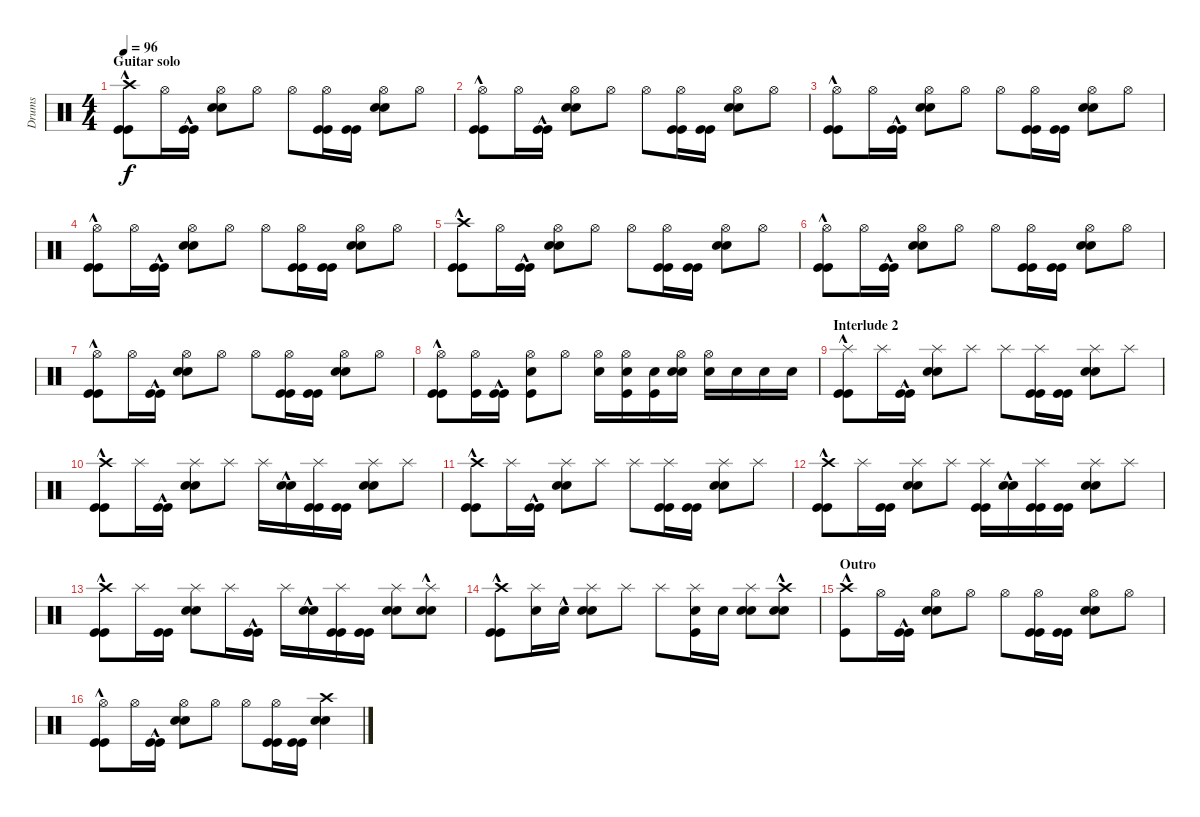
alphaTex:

\track ("Drums" "Drums") {instrument percussion}
\staff {score}
\articulation defaults
\ts (4 4)
\section ("" "Guitar solo")
\tempo 96
\clef neutral
\ks c
("Kick (hit)"{hac} "Kick (hit)"{hac} "Crash high (hit)").8{dy f} "Hi-Hat (open)".16 ("Kick (hit)"{hac} "Kick (hit)"{hac}).16 ("Snare (hit) 2" "Snare (hit) 2" "Hi-Hat (open)").8 "Hi-Hat (open)".8 "Hi-Hat (open)".8 ("Kick (hit)" "Kick (hit)" "Hi-Hat (open)").16 ("Kick (hit)" "Kick (hit)").16 ("Snare (hit) 2" "Snare (hit) 2" "Hi-Hat (open)").8 "Hi-Hat (open)".8 |
("Kick (hit)"{hac} "Kick (hit)"{hac} "Hi-Hat (open)").8 "Hi-Hat (open)".16 ("Kick (hit)"{hac} "Kick (hit)"{hac}).16 ("Snare (hit) 2" "Snare (hit) 2" "Hi-Hat (open)").8 "Hi-Hat (open)".8 "Hi-Hat (open)".8 ("Kick (hit)" "Kick (hit)" "Hi-Hat (open)").16 ("Kick (hit)" "Kick (hit)").16 ("Snare (hit) 2" "Snare (hit) 2" "Hi-Hat (open)").8 "Hi-Hat (open)".8 |
("Kick (hit)"{hac} "Kick (hit)"{hac} "Hi-Hat (open)").8 "Hi-Hat (open)".16 ("Kick (hit)"{hac} "Kick (hit)"{hac}).16 ("Snare (hit) 2" "Snare (hit) 2" "Hi-Hat (open)").8 "Hi-Hat (open)".8 "Hi-Hat (open)".8 ("Kick (hit)" "Kick (hit)" "Hi-Hat (open)").16 ("Kick (hit)" "Kick (hit)").16 ("Snare (hit) 2" "Snare (hit) 2" "Hi-Hat (open)").8 "Hi-Hat (open)".8 |
("Kick (hit)"{hac} "Kick (hit)"{hac} "Hi-Hat (open)").8 "Hi-Hat (open)".16 ("Kick (hit)"{hac} "Kick (hit)"{hac}).16 ("Snare (hit) 2" "Snare (hit) 2" "Hi-Hat (open)").8 "Hi-Hat (open)".8 "Hi-Hat (open)".8 ("Kick (hit)" "Kick (hit)" "Hi-Hat (open)").16 ("Kick (hit)" "Kick (hit)").16 ("Snare (hit) 2" "Snare (hit) 2" "Hi-Hat (open)").8 "Hi-Hat (open)".8 |
("Kick (hit)"{hac} "Kick (hit)"{hac} "Crash high (hit)").8 "Hi-Hat (open)".16 ("Kick (hit)"{hac} "Kick (hit)"{hac}).16 ("Snare (hit) 2" "Snare (hit) 2" "Hi-Hat (open)").8 "Hi-Hat (open)".8 "Hi-Hat (open)".8 ("Kick (hit)" "Kick (hit)" "Hi-Hat (open)").16 ("Kick (hit)" "Kick (hit)").16 ("Snare (hit) 2" "Snare (hit) 2" "Hi-Hat (open)").8 "Hi-Hat (open)".8 |
("Kick (hit)"{hac} "Kick (hit)"{hac} "Hi-Hat (open)").8 "Hi-Hat (open)".16 ("Kick (hit)"{hac} "Kick (hit)"{hac}).16 ("Snare (hit) 2" "Snare (hit) 2" "Hi-Hat (open)").8 "Hi-Hat (open)".8 "Hi-Hat (open)".8 ("Kick (hit)" "Kick (hit)" "Hi-Hat (open)").16 ("Kick (hit)" "Kick (hit)").16 ("Snare (hit) 2" "Snare (hit) 2" "Hi-Hat (open)").8 "Hi-Hat (open)".8 |
("Kick (hit)"{hac} "Kick (hit)"{hac} "Hi-Hat (open)").8 "Hi-Hat (open)".16 ("Kick (hit)"{hac} "Kick (hit)"{hac}).16 ("Snare (hit) 2" "Snare (hit) 2" "Hi-Hat (open)").8 "Hi-Hat (open)".8 "Hi-Hat (open)".8 ("Kick (hit)" "Kick (hit)" "Hi-Hat (open)").16 ("Kick (hit)" "Kick (hit)").16 ("Snare (hit) 2" "Snare (hit) 2" "Hi-Hat (open)").8 "Hi-Hat (open)".8 |
("Kick (hit)"{hac} "Kick (hit)"{hac} "Hi-Hat (open)").8 ("Hi-Hat (open)" "Kick (hit)").16 ("Kick (hit)"{hac} "Kick (hit)"{hac}).16 ("Snare (hit) 2" "Kick (hit)" "Hi-Hat (open)").8 "Hi-Hat (open)".8 ("Hi-Hat (open)" "Snare (hit) 2").16 ("Kick (hit)" "Snare (hit) 2" "Hi-Hat (open)").16 ("Kick (hit)" "Snare (hit) 2").16 ("Snare (hit) 2" "Snare (hit) 2" "Hi-Hat (open)").16 ("Hi-Hat (open)" "Snare (hit) 2").16 "Snare (hit) 2".16 "Snare (hit) 2".16 "Snare (hit) 2".16 |
\section ("" "Interlude 2")
("Kick (hit)"{hac} "Kick (hit)"{hac} "Splash (hit)").8 "Splash (hit)".16 ("Kick (hit)"{hac} "Kick (hit)"{hac}).16 ("Snare (hit) 2" "Snare (hit) 2" "Splash (hit)").8 "Splash (hit)".8 "Splash (hit)".8 ("Kick (hit)" "Kick (hit)" "Splash (hit)").16 ("Kick (hit)" "Kick (hit)").16 ("Snare (hit) 2" "Snare (hit) 2" "Splash (hit)").8 "Splash (hit)".8 |
("Kick (hit)"{hac} "Kick (hit)"{hac} "Crash high (hit)").8 "Splash (hit)".16 ("Kick (hit)"{hac} "Kick (hit)"{hac}).16 ("Snare (hit) 2" "Snare (hit) 2" "Splash (hit)").8 "Splash (hit)".8 "Splash (hit)".16 ("Snare (hit) 2"{hac} "Snare (hit) 2"{hac}).16 ("Kick (hit)" "Kick (hit)" "Splash (hit)").16 ("Kick (hit)" "Kick (hit)").16 ("Snare (hit) 2" "Snare (hit) 2" "Splash (hit)").8 "Splash (hit)".8 |
("Kick (hit)"{hac} "Kick (hit)"{hac} "Crash high (hit)").8 "Splash (hit)".16 ("Kick (hit)"{hac} "Kick (hit)"{hac}).16 ("Snare (hit) 2" "Snare (hit) 2" "Splash (hit)").8 "Splash (hit)".8 "Splash (hit)".8 ("Kick (hit)" "Kick (hit)" "Splash (hit)").16 ("Kick (hit)" "Kick (hit)").16 ("Snare (hit) 2" "Snare (hit) 2" "Splash (hit)").8 "Splash (hit)".8 |
("Kick (hit)"{hac} "Kick (hit)"{hac} "Crash high (hit)").8 "Splash (hit)".16 ("Kick (hit)" "Kick (hit)").16 ("Snare (hit) 2" "Snare (hit) 2" "Splash (hit)").8 "Splash (hit)".8 ("Kick (hit)" "Kick (hit)" "Splash (hit)").16 ("Snare (hit) 2"{hac} "Snare (hit) 2"{hac}).16 ("Kick (hit)" "Kick (hit)" "Splash (hit)").16 ("Kick (hit)" "Kick (hit)").16 ("Snare (hit) 2" "Snare (hit) 2" "Splash (hit)").8 "Splash (hit)".8 |
("Kick (hit)"{hac} "Kick (hit)"{hac} "Crash high (hit)").8 "Splash (hit)".16 ("Kick (hit)" "Kick (hit)").16 ("Snare (hit) 2" "Snare (hit) 2" "Splash (hit)").8 "Splash (hit)".16 ("Kick (hit)"{hac} "Kick (hit)"{hac}).16 "Splash (hit)".16 ("Snare (hit) 2"{hac} "Snare (hit) 2"{hac}).16 ("Kick (hit)" "Kick (hit)" "Splash (hit)").16 ("Kick (hit)" "Kick (hit)").16 ("Snare (hit) 2" "Snare (hit) 2" "Splash (hit)").8 ("Snare (hit) 2"{hac} "Snare (hit) 2"{hac} "Splash (hit)").8 |
("Kick (hit)"{hac} "Kick (hit)"{hac} "Crash high (hit)").8 ("Splash (hit)" "Snare (hit) 2").16 "Snare (hit) 2"{hac}.16 ("Snare (hit) 2" "Snare (hit) 2" "Splash (hit)").8 "Splash (hit)".8 "Splash (hit)".8 ("Kick (hit)" "Snare (hit) 2" "Splash (hit)").16 "Snare (hit) 2".16 ("Snare (hit) 2" "Snare (hit) 2" "Splash (hit)").8 ("Snare (hit) 2"{hac} "Snare (hit) 2"{hac} "Crash high (hit)").8 |
\section ("" "Outro")
("Kick (hit)"{hac} "Crash high (hit)").8 "Hi-Hat (open)".16 ("Kick (hit)"{hac} "Kick (hit)"{hac}).16 ("Snare (hit) 2" "Snare (hit) 2" "Hi-Hat (open)").8 "Hi-Hat (open)".8 "Hi-Hat (open)".8 ("Kick (hit)" "Kick (hit)" "Hi-Hat (open)").16 ("Kick (hit)" "Kick (hit)").16 ("Snare (hit) 2" "Snare (hit) 2" "Hi-Hat (open)").8 "Hi-Hat (open)".8 |
("Kick (hit)"{hac} "Kick (hit)"{hac} "Hi-Hat (open)").8 "Hi-Hat (open)".16 ("Kick (hit)"{hac} "Kick (hit)"{hac}).16 ("Snare (hit) 2" "Snare (hit) 2" "Hi-Hat (open)").8 "Hi-Hat (open)".8 "Hi-Hat (open)".8 ("Kick (hit)" "Kick (hit)" "Hi-Hat (open)").16 ("Kick (hit)" "Kick (hit)").16 ("Snare (hit) 2" "Snare (hit) 2" "Crash high (hit)").4
